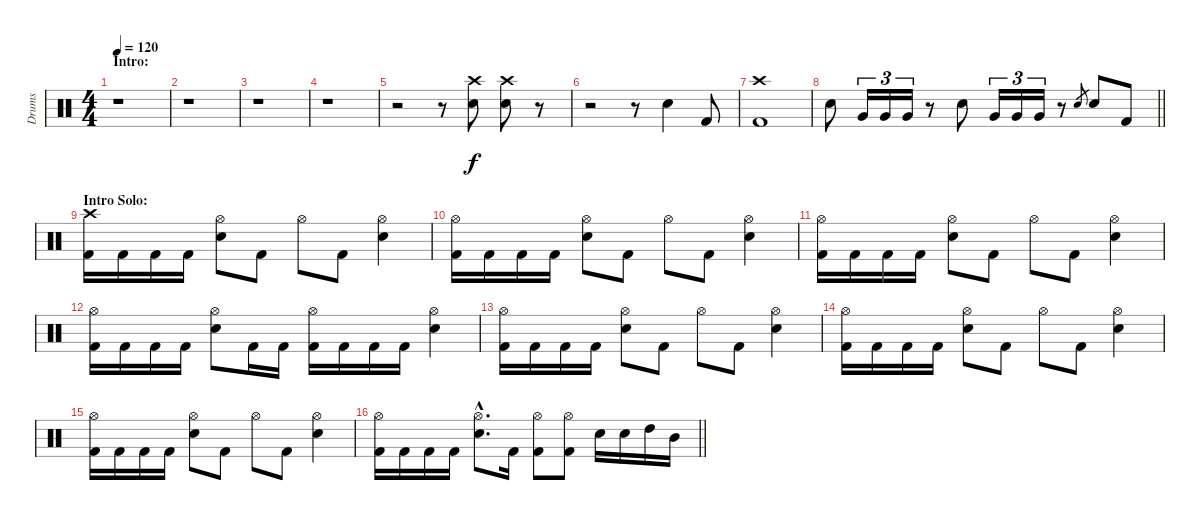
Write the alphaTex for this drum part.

\track ("Drums" "Drums") {instrument percussion}
\staff {score}
\articulation defaults
\ts (4 4)
\section ("" "Intro:")
\tempo 120
\clef neutral
\ks c
r.1{dy f} |
r.1 |
r.1 |
r.1 |
r.2 r.8 ("Crash high (hit)" "Electric Snare (hit)").8 ("Crash high (hit)" "Electric Snare (hit)").8 r.8 |
r.2 r.8 "Electric Snare (hit)".4 "Kick (hit) 2".8 |
("Crash high (hit)" "Kick (hit) 2").1 |
\barLineRight lightlight "Electric Snare (hit)".8 "Very Low Tom (hit)".16{tu (3 2)} "Very Low Tom (hit)".16{tu (3 2)} "Very Low Tom (hit)".16{tu (3 2)}
r.8 "Electric Snare (hit)".8 "Very Low Tom (hit)".16{tu (3 2)} "Very Low Tom (hit)".16{tu (3 2)} "Very Low Tom (hit)".16{tu (3 2)} r.8 "Electric Snare (hit)".8{gr} "Electric Snare (hit)".8 "Kick (hit) 2".8 |
\section ("" "Intro Solo:")
("Crash high (hit)" "Kick (hit) 2").16 "Kick (hit) 2".16 "Kick (hit) 2".16 "Kick (hit) 2".16 ("Hi-Hat (open)" "Electric Snare (hit)").8 "Kick (hit) 2".8 "Hi-Hat (open)".8 "Kick (hit) 2".8 ("Hi-Hat (open)" "Electric Snare (hit)").4 |
("Hi-Hat (open)" "Kick (hit) 2").16 "Kick (hit) 2".16 "Kick (hit) 2".16 "Kick (hit) 2".16 ("Hi-Hat (open)" "Electric Snare (hit)").8 "Kick (hit) 2".8 "Hi-Hat (open)".8 "Kick (hit) 2".8 ("Hi-Hat (open)" "Electric Snare (hit)").4 |
("Hi-Hat (open)" "Kick (hit) 2").16 "Kick (hit) 2".16 "Kick (hit) 2".16 "Kick (hit) 2".16 ("Hi-Hat (open)" "Electric Snare (hit)").8 "Kick (hit) 2".8 "Hi-Hat (open)".8 "Kick (hit) 2".8 ("Hi-Hat (open)" "Electric Snare (hit)").4 |
("Hi-Hat (open)" "Kick (hit) 2").16 "Kick (hit) 2".16 "Kick (hit) 2".16 "Kick (hit) 2".16 ("Hi-Hat (open)" "Electric Snare (hit)").8 "Kick (hit) 2".16 "Kick (hit) 2".16 ("Hi-Hat (open)" "Kick (hit) 2").16 "Kick (hit) 2".16 "Kick (hit) 2".16 "Kick (hit) 2".16 ("Hi-Hat (open)" "Electric Snare (hit)").4 |
("Hi-Hat (open)" "Kick (hit) 2").16 "Kick (hit) 2".16 "Kick (hit) 2".16 "Kick (hit) 2".16 ("Hi-Hat (open)" "Electric Snare (hit)").8 "Kick (hit) 2".8 "Hi-Hat (open)".8 "Kick (hit) 2".8 ("Hi-Hat (open)" "Electric Snare (hit)").4 |
("Hi-Hat (open)" "Kick (hit) 2").16 "Kick (hit) 2".16 "Kick (hit) 2".16 "Kick (hit) 2".16 ("Hi-Hat (open)" "Electric Snare (hit)").8 "Kick (hit) 2".8 "Hi-Hat (open)".8 "Kick (hit) 2".8 ("Hi-Hat (open)" "Electric Snare (hit)").4 |
("Hi-Hat (open)" "Kick (hit) 2").16 "Kick (hit) 2".16 "Kick (hit) 2".16 "Kick (hit) 2".16 ("Hi-Hat (open)" "Electric Snare (hit)").8 "Kick (hit) 2".8 "Hi-Hat (open)".8 "Kick (hit) 2".8 ("Hi-Hat (open)" "Electric Snare (hit)").4 |
\barLineRight lightlight
("Hi-Hat (open)" "Kick (hit) 2").16 "Kick (hit) 2".16 "Kick (hit) 2".16 "Kick (hit) 2".16 ("Hi-Hat (open)"{hac} "Electric Snare (hit)"{hac}).8{d} "Kick (hit) 2".16 ("Hi-Hat (open)" "Kick (hit) 2").8 ("Hi-Hat (open)" "Kick (hit) 2").8 "Electric Snare (hit)".16 "Electric Snare (hit)".16 "High Tom (hit)".16 "Mid Tom (hit)".16
